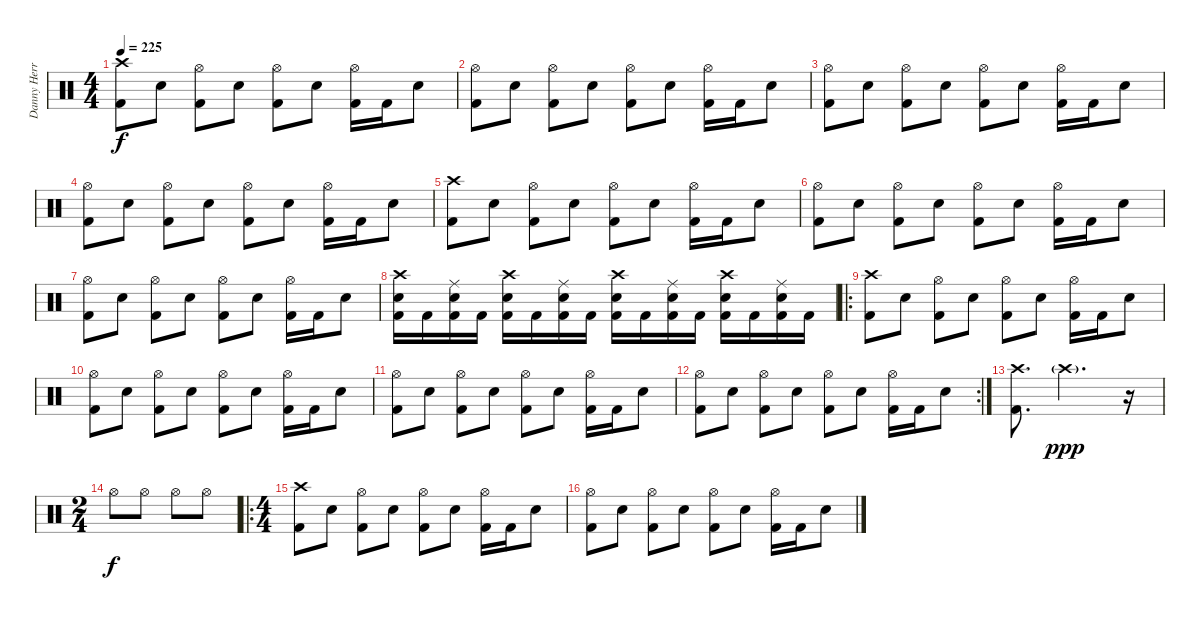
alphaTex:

\track ("Danny Herrera - Drums" "Danny Herr") {instrument percussion}
\staff {score}
\articulation defaults
\ts (4 4)
\tempo 225
\clef neutral
\ks c
("Crash high (hit)" "Kick (hit) 2").8{dy f} "Electric Snare (hit)".8 ("Hi-Hat (open)" "Kick (hit) 2").8 "Electric Snare (hit)".8 ("Hi-Hat (open)" "Kick (hit) 2").8 "Electric Snare (hit)".8 ("Hi-Hat (open)" "Kick (hit) 2").16 "Kick (hit) 2".16 "Electric Snare (hit)".8 |
("Hi-Hat (open)" "Kick (hit) 2").8 "Electric Snare (hit)".8 ("Hi-Hat (open)" "Kick (hit) 2").8 "Electric Snare (hit)".8 ("Hi-Hat (open)" "Kick (hit) 2").8 "Electric Snare (hit)".8 ("Hi-Hat (open)" "Kick (hit) 2").16 "Kick (hit) 2".16 "Electric Snare (hit)".8 |
("Hi-Hat (open)" "Kick (hit) 2").8 "Electric Snare (hit)".8 ("Hi-Hat (open)" "Kick (hit) 2").8 "Electric Snare (hit)".8 ("Hi-Hat (open)" "Kick (hit) 2").8 "Electric Snare (hit)".8 ("Hi-Hat (open)" "Kick (hit) 2").16 "Kick (hit) 2".16 "Electric Snare (hit)".8 |
("Hi-Hat (open)" "Kick (hit) 2").8 "Electric Snare (hit)".8 ("Hi-Hat (open)" "Kick (hit) 2").8 "Electric Snare (hit)".8 ("Hi-Hat (open)" "Kick (hit) 2").8 "Electric Snare (hit)".8 ("Hi-Hat (open)" "Kick (hit) 2").16 "Kick (hit) 2".16 "Electric Snare (hit)".8 |
("Crash high (hit)" "Kick (hit) 2").8 "Electric Snare (hit)".8 ("Hi-Hat (open)" "Kick (hit) 2").8 "Electric Snare (hit)".8 ("Hi-Hat (open)" "Kick (hit) 2").8 "Electric Snare (hit)".8 ("Hi-Hat (open)" "Kick (hit) 2").16 "Kick (hit) 2".16 "Electric Snare (hit)".8 |
("Hi-Hat (open)" "Kick (hit) 2").8 "Electric Snare (hit)".8 ("Hi-Hat (open)" "Kick (hit) 2").8 "Electric Snare (hit)".8 ("Hi-Hat (open)" "Kick (hit) 2").8 "Electric Snare (hit)".8 ("Hi-Hat (open)" "Kick (hit) 2").16 "Kick (hit) 2".16 "Electric Snare (hit)".8 |
("Hi-Hat (open)" "Kick (hit) 2").8 "Electric Snare (hit)".8 ("Hi-Hat (open)" "Kick (hit) 2").8 "Electric Snare (hit)".8 ("Hi-Hat (open)" "Kick (hit) 2").8 "Electric Snare (hit)".8 ("Hi-Hat (open)" "Kick (hit) 2").16 "Kick (hit) 2".16 "Electric Snare (hit)".8 |
("Crash high (hit)" "Electric Snare (hit)" "Kick (hit) 2").16 "Kick (hit) 2".16 ("Ride (middle)" "Electric Snare (hit)" "Kick (hit) 2").16 "Kick (hit) 2".16 ("Crash high (hit)" "Electric Snare (hit)" "Kick (hit) 2").16 "Kick (hit) 2".16 ("Ride (middle)" "Electric Snare (hit)" "Kick (hit) 2").16 "Kick (hit) 2".16 ("Crash high (hit)" "Electric Snare (hit)" "Kick (hit) 2").16 "Kick (hit) 2".16 ("Ride (middle)" "Electric Snare (hit)" "Kick (hit) 2").16 "Kick (hit) 2".16 ("Crash high (hit)" "Electric Snare (hit)" "Kick (hit) 2").16 "Kick (hit) 2".16 ("Ride (middle)" "Electric Snare (hit)" "Kick (hit) 2").16 "Kick (hit) 2".16 |
\ro
("Crash high (hit)" "Kick (hit) 2").8 "Electric Snare (hit)".8 ("Hi-Hat (open)" "Kick (hit) 2").8 "Electric Snare (hit)".8 ("Hi-Hat (open)" "Kick (hit) 2").8 "Electric Snare (hit)".8 ("Hi-Hat (open)" "Kick (hit) 2").16 "Kick (hit) 2".16 "Electric Snare (hit)".8 |
("Hi-Hat (open)" "Kick (hit) 2").8 "Electric Snare (hit)".8 ("Hi-Hat (open)" "Kick (hit) 2").8 "Electric Snare (hit)".8 ("Hi-Hat (open)" "Kick (hit) 2").8 "Electric Snare (hit)".8 ("Hi-Hat (open)" "Kick (hit) 2").16 "Kick (hit) 2".16 "Electric Snare (hit)".8 |
("Hi-Hat (open)" "Kick (hit) 2").8 "Electric Snare (hit)".8 ("Hi-Hat (open)" "Kick (hit) 2").8 "Electric Snare (hit)".8 ("Hi-Hat (open)" "Kick (hit) 2").8 "Electric Snare (hit)".8 ("Hi-Hat (open)" "Kick (hit) 2").16 "Kick (hit) 2".16 "Electric Snare (hit)".8 |
\rc 2
("Hi-Hat (open)" "Kick (hit) 2").8 "Electric Snare (hit)".8 ("Hi-Hat (open)" "Kick (hit) 2").8 "Electric Snare (hit)".8 ("Hi-Hat (open)" "Kick (hit) 2").8 "Electric Snare (hit)".8 ("Hi-Hat (open)" "Kick (hit) 2").16 "Kick (hit) 2".16 "Electric Snare (hit)".8 |
("Crash high (hit)" "Kick (hit) 2").8{d} "Crash high (hit)"{g}.2{d dy ppp} r.16 |
\ts (2 4)
"Hi-Hat (open)".8{dy f} "Hi-Hat (open)".8 "Hi-Hat (open)".8 "Hi-Hat (open)".8 |
\ro
\ts (4 4)
("Crash high (hit)" "Kick (hit) 2").8 "Electric Snare (hit)".8 ("Hi-Hat (open)" "Kick (hit) 2").8 "Electric Snare (hit)".8 ("Hi-Hat (open)" "Kick (hit) 2").8 "Electric Snare (hit)".8 ("Hi-Hat (open)" "Kick (hit) 2").16 "Kick (hit) 2".16 "Electric Snare (hit)".8 |
("Hi-Hat (open)" "Kick (hit) 2").8 "Electric Snare (hit)".8 ("Hi-Hat (open)" "Kick (hit) 2").8 "Electric Snare (hit)".8 ("Hi-Hat (open)" "Kick (hit) 2").8 "Electric Snare (hit)".8 ("Hi-Hat (open)" "Kick (hit) 2").16 "Kick (hit) 2".16 "Electric Snare (hit)".8
